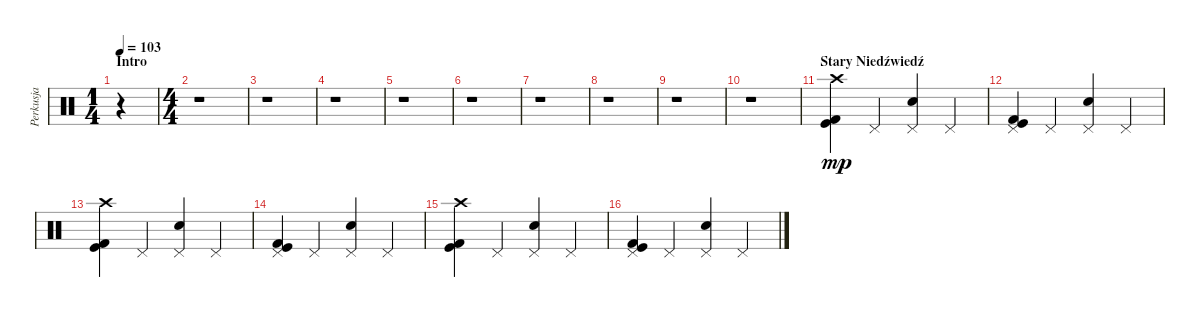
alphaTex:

\track ("Perkusja" "Perkusja") {instrument percussion}
\staff {score}
\articulation defaults
\ts (1 4)
\section ("" "Intro")
\tempo 103
\clef neutral
\ks c
r.4{dy mp} |
\ts (4 4)
r.1 |
r.1 |
r.1 |
r.1 |
r.1 |
r.1 |
r.1 |
r.1 |
r.1 |
\section ("" "Stary Niedźwiedź")
("Kick (hit) 2" "Kick (hit)" "Crash high (hit)").4 "Pedal Hi-Hat (hit)".4 ("Pedal Hi-Hat (hit)" "Snare (hit) 2").4 "Pedal Hi-Hat (hit)".4 |
("Kick (hit) 2" "Kick (hit)" "Pedal Hi-Hat (hit)").4 "Pedal Hi-Hat (hit)".4 ("Pedal Hi-Hat (hit)" "Snare (hit) 2").4 "Pedal Hi-Hat (hit)".4 |
("Kick (hit) 2" "Kick (hit)" "Crash high (hit)").4 "Pedal Hi-Hat (hit)".4 ("Pedal Hi-Hat (hit)" "Snare (hit) 2").4 "Pedal Hi-Hat (hit)".4 |
("Kick (hit) 2" "Kick (hit)" "Pedal Hi-Hat (hit)").4 "Pedal Hi-Hat (hit)".4 ("Pedal Hi-Hat (hit)" "Snare (hit) 2").4 "Pedal Hi-Hat (hit)".4 |
("Kick (hit) 2" "Kick (hit)" "Crash high (hit)").4 "Pedal Hi-Hat (hit)".4 ("Pedal Hi-Hat (hit)" "Snare (hit) 2").4 "Pedal Hi-Hat (hit)".4 |
("Kick (hit) 2" "Kick (hit)" "Pedal Hi-Hat (hit)").4 "Pedal Hi-Hat (hit)".4 ("Pedal Hi-Hat (hit)" "Snare (hit) 2").4 "Pedal Hi-Hat (hit)".4
